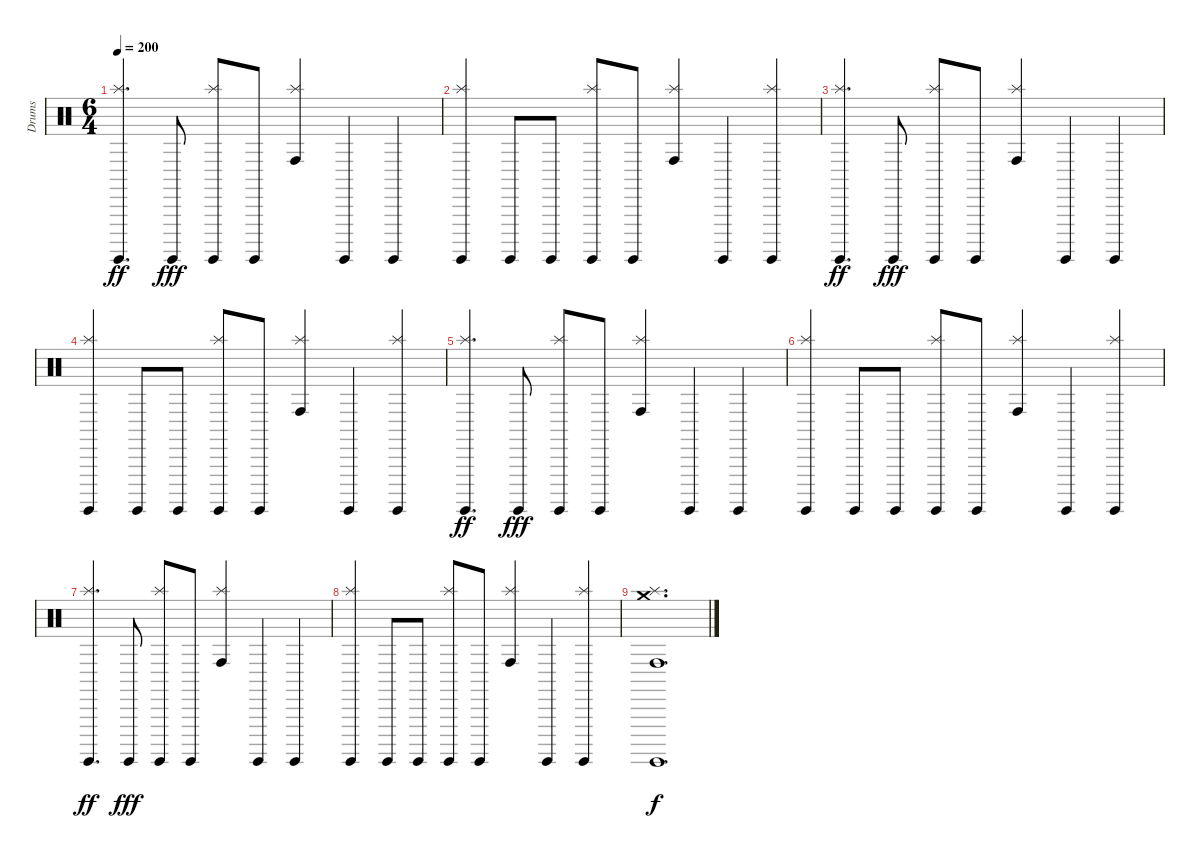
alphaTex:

\track ("Drums" "Drums") {instrument percussion}
\staff {score}
\articulation defaults
\ts (6 4)
\tempo 200
\clef neutral
\ks c
("Splash (hit)" "Surdo (hit)").4{d dy ff} "Surdo (hit)".8{dy fff} ("Splash (hit)" "Surdo (hit)").8 "Surdo (hit)".8 ("Splash (hit)" "Conga high (hit)").4 "Surdo (hit)".4 "Surdo (hit)".4 |
("Splash (hit)" "Surdo (hit)").4 "Surdo (hit)".8 "Surdo (hit)".8 ("Splash (hit)" "Surdo (hit)").8 "Surdo (hit)".8 ("Splash (hit)" "Conga high (hit)").4 "Surdo (hit)".4 ("Splash (hit)" "Surdo (hit)").4 |
("Splash (hit)" "Surdo (hit)").4{d dy ff} "Surdo (hit)".8{dy fff} ("Splash (hit)" "Surdo (hit)").8 "Surdo (hit)".8 ("Splash (hit)" "Conga high (hit)").4 "Surdo (hit)".4 "Surdo (hit)".4 |
("Splash (hit)" "Surdo (hit)").4 "Surdo (hit)".8 "Surdo (hit)".8 ("Splash (hit)" "Surdo (hit)").8 "Surdo (hit)".8 ("Splash (hit)" "Conga high (hit)").4 "Surdo (hit)".4 ("Splash (hit)" "Surdo (hit)").4 |
("Splash (hit)" "Surdo (hit)").4{d dy ff} "Surdo (hit)".8{dy fff} ("Splash (hit)" "Surdo (hit)").8 "Surdo (hit)".8 ("Splash (hit)" "Conga high (hit)").4 "Surdo (hit)".4 "Surdo (hit)".4 |
("Splash (hit)" "Surdo (hit)").4 "Surdo (hit)".8 "Surdo (hit)".8 ("Splash (hit)" "Surdo (hit)").8 "Surdo (hit)".8 ("Splash (hit)" "Conga high (hit)").4 "Surdo (hit)".4 ("Splash (hit)" "Surdo (hit)").4 |
("Splash (hit)" "Surdo (hit)").4{d dy ff} "Surdo (hit)".8{dy fff} ("Splash (hit)" "Surdo (hit)").8 "Surdo (hit)".8 ("Splash (hit)" "Conga high (hit)").4 "Surdo (hit)".4 "Surdo (hit)".4 |
("Splash (hit)" "Surdo (hit)").4 "Surdo (hit)".8 "Surdo (hit)".8 ("Splash (hit)" "Surdo (hit)").8 "Surdo (hit)".8 ("Splash (hit)" "Conga high (hit)").4 "Surdo (hit)".4 ("Splash (hit)" "Surdo (hit)").4 |
("Crash medium (hit)" "Splash (hit)" "Conga high (hit)" "Surdo (hit)").1{d dy f}
